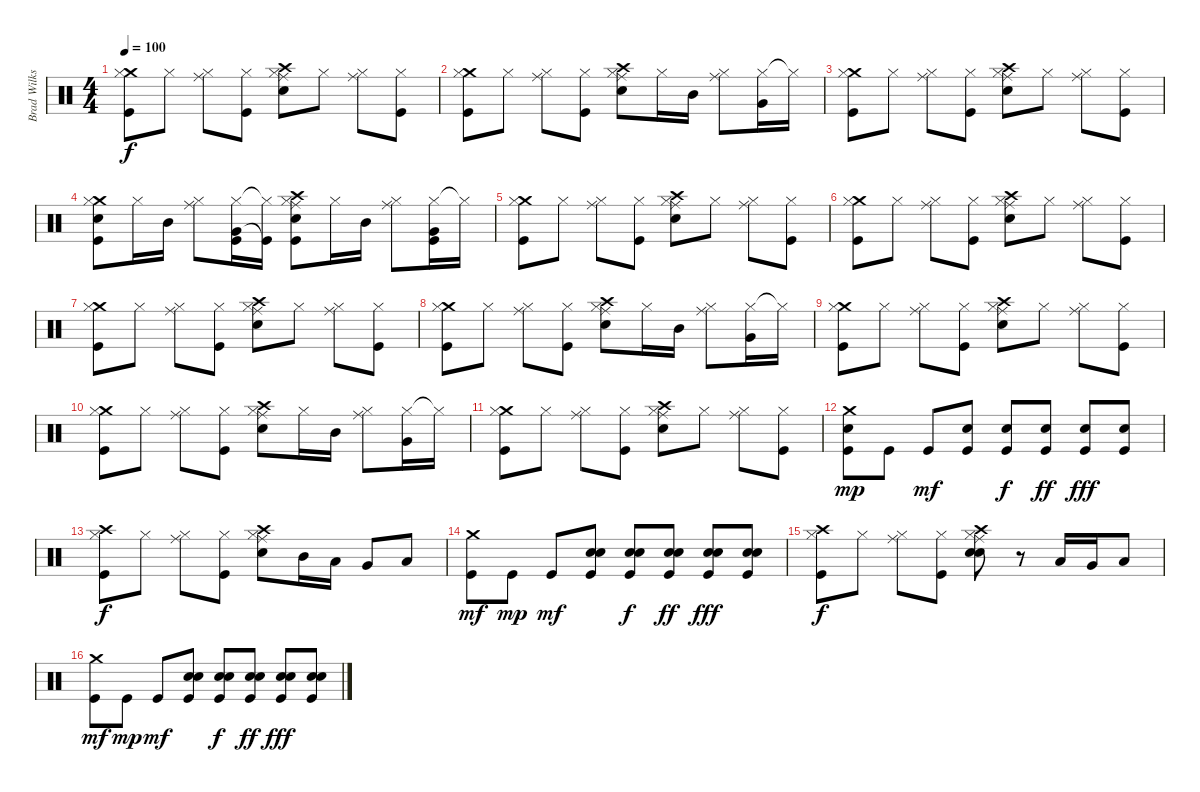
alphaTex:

\track ("Brad Wilks (Percussion)" "Brad Wilks") {instrument percussion}
\staff {score}
\articulation defaults
\ts (4 4)
\tempo 100
\clef neutral
\ks c
("Crash medium (hit)" "Hi-Hat (closed)" "Kick (hit)").8{dy f} "Hi-Hat (closed)".8 ("Ride (middle)" "Hi-Hat (closed)").8 ("Hi-Hat (closed)" "Kick (hit)").8 ("Ride (middle)" "Hi-Hat (closed)" "Snare (hit) 2" "Crash high (hit)").8 "Hi-Hat (closed)".8 ("Ride (middle)" "Hi-Hat (closed)").8 ("Hi-Hat (closed)" "Kick (hit)").8 |
("Crash medium (hit)" "Hi-Hat (closed)" "Kick (hit)").8 "Hi-Hat (closed)".8 ("Ride (middle)" "Hi-Hat (closed)").8 ("Hi-Hat (closed)" "Kick (hit)").8 ("Ride (middle)" "Hi-Hat (closed)" "Snare (hit) 2" "Crash high (hit)").8 "Hi-Hat (closed)".16 "Mid Tom (hit)".16 ("Ride (middle)" "Hi-Hat (closed)").8 ("Hi-Hat (closed)" "Very Low Tom (hit)").16 "Hi-Hat (closed)"{t}.16 |
("Crash medium (hit)" "Hi-Hat (closed)" "Kick (hit)").8 "Hi-Hat (closed)".8 ("Ride (middle)" "Hi-Hat (closed)").8 ("Hi-Hat (closed)" "Kick (hit)").8 ("Ride (middle)" "Hi-Hat (closed)" "Snare (hit) 2" "Crash high (hit)").8 "Hi-Hat (closed)".8 ("Ride (middle)" "Hi-Hat (closed)").8 ("Hi-Hat (closed)" "Kick (hit)").8 |
("Crash medium (hit)" "Hi-Hat (closed)" "Snare (hit) 2" "Kick (hit)").8 "Hi-Hat (closed)".16 "Mid Tom (hit)".16 ("Ride (middle)" "Hi-Hat (closed)").8 ("Hi-Hat (closed)" "Very Low Tom (hit)" "Kick (hit)").16 ("Hi-Hat (closed)"{t} "Kick (hit)"{t}).16 ("Ride (middle)" "Hi-Hat (closed)" "Snare (hit) 2" "Crash high (hit)" "Kick (hit)").8 "Hi-Hat (closed)".16 "Mid Tom (hit)".16 ("Ride (middle)" "Hi-Hat (closed)").8 ("Hi-Hat (closed)" "Very Low Tom (hit)" "Kick (hit)").16 "Hi-Hat (closed)"{t}.16 |
("Crash medium (hit)" "Hi-Hat (closed)" "Kick (hit)").8 "Hi-Hat (closed)".8 ("Ride (middle)" "Hi-Hat (closed)").8 ("Hi-Hat (closed)" "Kick (hit)").8 ("Ride (middle)" "Hi-Hat (closed)" "Snare (hit) 2" "Crash high (hit)").8 "Hi-Hat (closed)".8 ("Ride (middle)" "Hi-Hat (closed)").8 ("Hi-Hat (closed)" "Kick (hit)").8 |
("Crash medium (hit)" "Hi-Hat (closed)" "Kick (hit)").8 "Hi-Hat (closed)".8 ("Ride (middle)" "Hi-Hat (closed)").8 ("Hi-Hat (closed)" "Kick (hit)").8 ("Ride (middle)" "Hi-Hat (closed)" "Snare (hit) 2" "Crash high (hit)").8 "Hi-Hat (closed)".8 ("Ride (middle)" "Hi-Hat (closed)").8 ("Hi-Hat (closed)" "Kick (hit)").8 |
("Crash medium (hit)" "Hi-Hat (closed)" "Kick (hit)").8 "Hi-Hat (closed)".8 ("Ride (middle)" "Hi-Hat (closed)").8 ("Hi-Hat (closed)" "Kick (hit)").8 ("Ride (middle)" "Hi-Hat (closed)" "Snare (hit) 2" "Crash high (hit)").8 "Hi-Hat (closed)".8 ("Ride (middle)" "Hi-Hat (closed)").8 ("Hi-Hat (closed)" "Kick (hit)").8 |
("Crash medium (hit)" "Hi-Hat (closed)" "Kick (hit)").8 "Hi-Hat (closed)".8 ("Ride (middle)" "Hi-Hat (closed)").8 ("Hi-Hat (closed)" "Kick (hit)").8 ("Ride (middle)" "Hi-Hat (closed)" "Snare (hit) 2" "Crash high (hit)").8 "Hi-Hat (closed)".16 "Mid Tom (hit)".16 ("Ride (middle)" "Hi-Hat (closed)").8 ("Hi-Hat (closed)" "Very Low Tom (hit)").16 "Hi-Hat (closed)"{t}.16 |
("Crash medium (hit)" "Hi-Hat (closed)" "Kick (hit)").8 "Hi-Hat (closed)".8 ("Ride (middle)" "Hi-Hat (closed)").8 ("Hi-Hat (closed)" "Kick (hit)").8 ("Ride (middle)" "Hi-Hat (closed)" "Snare (hit) 2" "Crash high (hit)").8 "Hi-Hat (closed)".8 ("Ride (middle)" "Hi-Hat (closed)").8 ("Hi-Hat (closed)" "Kick (hit)").8 |
("Crash medium (hit)" "Hi-Hat (closed)" "Kick (hit)").8 "Hi-Hat (closed)".8 ("Ride (middle)" "Hi-Hat (closed)").8 ("Hi-Hat (closed)" "Kick (hit)").8 ("Ride (middle)" "Hi-Hat (closed)" "Snare (hit) 2" "Crash high (hit)").8 "Hi-Hat (closed)".16 "Mid Tom (hit)".16 ("Ride (middle)" "Hi-Hat (closed)").8 ("Hi-Hat (closed)" "Very Low Tom (hit)").16 "Hi-Hat (closed)"{t}.16 |
("Crash medium (hit)" "Hi-Hat (closed)" "Kick (hit)").8 "Hi-Hat (closed)".8 ("Ride (middle)" "Hi-Hat (closed)").8 ("Hi-Hat (closed)" "Kick (hit)").8 ("Ride (middle)" "Hi-Hat (closed)" "Snare (hit) 2" "Crash high (hit)").8 "Hi-Hat (closed)".8 ("Ride (middle)" "Hi-Hat (closed)").8 ("Hi-Hat (closed)" "Kick (hit)").8 |
("Crash medium (hit)" "Snare (hit) 2" "Kick (hit)").8{dy mp} "Kick (hit)".8 "Kick (hit)".8{dy mf} ("Snare (hit) 2" "Kick (hit)").8 ("Snare (hit) 2" "Kick (hit)").8{dy f} ("Snare (hit) 2" "Kick (hit)").8{dy ff} ("Snare (hit) 2" "Kick (hit)").8{dy fff} ("Snare (hit) 2" "Kick (hit)").8 |
("Crash high (hit)" "Hi-Hat (closed)" "Kick (hit)").8{dy f} "Hi-Hat (closed)".8 ("Ride (middle)" "Hi-Hat (closed)").8 ("Hi-Hat (closed)" "Kick (hit)").8 ("Ride (middle)" "Hi-Hat (closed)" "Snare (hit) 2" "Crash high (hit)").8 "Mid Tom (hit)".16 "Low Tom (hit)".16 "Very Low Tom (hit)".8 "Low Floor Tom (hit)".8 |
("Crash medium (hit)" "Kick (hit)").8{dy mf} "Kick (hit)".8{dy mp} "Kick (hit)".8{dy mf} ("Snare (hit) 2" "Snare (hit) 2" "Kick (hit)").8 ("Snare (hit) 2" "Snare (hit) 2" "Kick (hit)").8{dy f} ("Snare (hit) 2" "Snare (hit) 2" "Kick (hit)").8{dy ff} ("Snare (hit) 2" "Snare (hit) 2" "Kick (hit)").8{dy fff} ("Snare (hit) 2" "Snare (hit) 2" "Kick (hit)").8 |
("Crash high (hit)" "Hi-Hat (closed)" "Kick (hit)").8{dy f} "Hi-Hat (closed)".8 ("Ride (middle)" "Hi-Hat (closed)").8 ("Hi-Hat (closed)" "Kick (hit)").8 ("Ride (middle)" "Hi-Hat (closed)" "Snare (hit) 2" "Crash high (hit)" "Snare (hit) 2").8 r.8 "Low Tom (hit)".16 "Very Low Tom (hit)".16 "Low Floor Tom (hit)".8 |
("Crash medium (hit)" "Kick (hit)").8{dy mf} "Kick (hit)".8{dy mp} "Kick (hit)".8{dy mf} ("Snare (hit) 2" "Snare (hit) 2" "Kick (hit)").8 ("Snare (hit) 2" "Snare (hit) 2" "Kick (hit)").8{dy f} ("Snare (hit) 2" "Snare (hit) 2" "Kick (hit)").8{dy ff} ("Snare (hit) 2" "Snare (hit) 2" "Kick (hit)").8{dy fff} ("Snare (hit) 2" "Snare (hit) 2" "Kick (hit)").8
